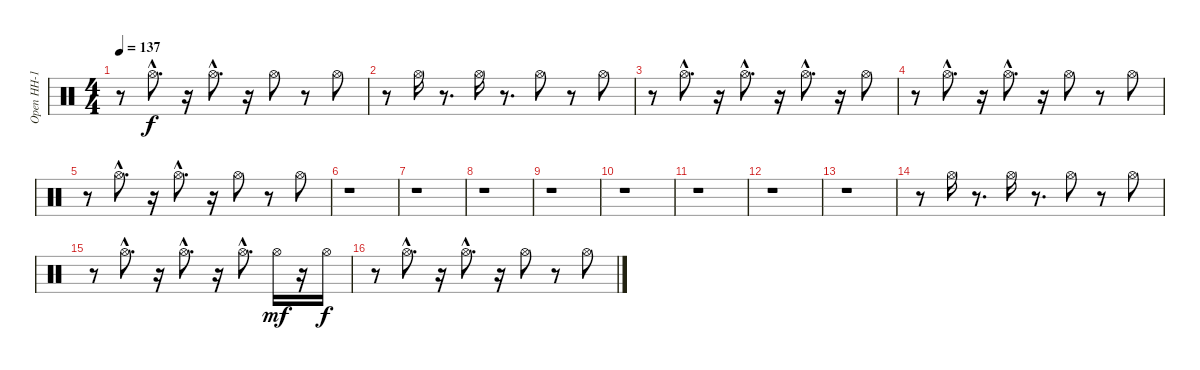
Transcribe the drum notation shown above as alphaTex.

\track ("Open HH-1" "Open HH-1") {instrument percussion}
\staff {score}
\articulation defaults
\ts (4 4)
\tempo 137
\clef neutral
\ks c
r.8{dy f} "Hi-Hat (open)"{hac}.8{d} r.16 "Hi-Hat (open)"{hac}.8{d} r.16 "Hi-Hat (open)".8 r.8 "Hi-Hat (open)".8 |
r.8 "Hi-Hat (open)".16 r.8{d} "Hi-Hat (open)".16 r.8{d} "Hi-Hat (open)".8 r.8 "Hi-Hat (open)".8 |
r.8 "Hi-Hat (open)"{hac}.8{d} r.16 "Hi-Hat (open)"{hac}.8{d} r.16 "Hi-Hat (open)"{hac}.8{d} r.16 "Hi-Hat (open)".8 |
r.8 "Hi-Hat (open)"{hac}.8{d} r.16 "Hi-Hat (open)"{hac}.8{d} r.16 "Hi-Hat (open)".8 r.8 "Hi-Hat (open)".8 |
r.8 "Hi-Hat (open)"{hac}.8{d} r.16 "Hi-Hat (open)"{hac}.8{d} r.16 "Hi-Hat (open)".8 r.8 "Hi-Hat (open)".8 |
r.1 |
r.1 |
r.1 |
r.1 |
r.1 |
r.1 |
r.1 |
r.1 |
r.8 "Hi-Hat (open)".16 r.8{d} "Hi-Hat (open)".16 r.8{d} "Hi-Hat (open)".8 r.8 "Hi-Hat (open)".8 |
r.8 "Hi-Hat (open)"{hac}.8{d} r.16 "Hi-Hat (open)"{hac}.8{d} r.16 "Hi-Hat (open)"{hac}.8{d} "Hi-Hat (open)".16{dy mf} r.16 "Hi-Hat (open)".16{dy f} |
r.8 "Hi-Hat (open)"{hac}.8{d} r.16 "Hi-Hat (open)"{hac}.8{d} r.16 "Hi-Hat (open)".8 r.8 "Hi-Hat (open)".8
